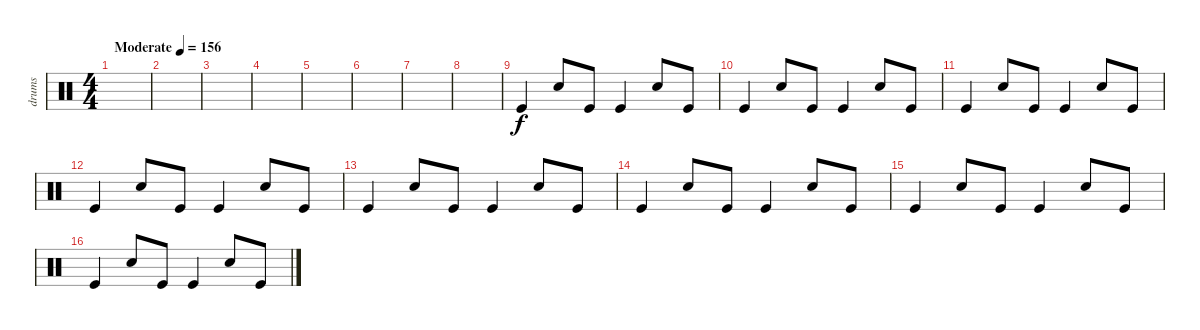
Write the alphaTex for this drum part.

\track ("drums" "drums") {instrument percussion}
\staff {score}
\articulation defaults
\ts (4 4)
\tempo (156 "Moderate")
\clef neutral
\ks c
|
|
|
|
|
|
|
|
"Kick (hit)".4 "Snare (hit) 2".8 "Kick (hit)".8 "Kick (hit)".4 "Snare (hit) 2".8 "Kick (hit)".8 |
"Kick (hit)".4 "Snare (hit) 2".8 "Kick (hit)".8 "Kick (hit)".4 "Snare (hit) 2".8 "Kick (hit)".8 |
"Kick (hit)".4 "Snare (hit) 2".8 "Kick (hit)".8 "Kick (hit)".4 "Snare (hit) 2".8 "Kick (hit)".8 |
"Kick (hit)".4 "Snare (hit) 2".8 "Kick (hit)".8 "Kick (hit)".4 "Electric Snare (hit)".8 "Kick (hit)".8 |
"Kick (hit)".4 "Snare (hit) 2".8 "Kick (hit)".8 "Kick (hit)".4 "Snare (hit) 2".8 "Kick (hit)".8 |
"Kick (hit)".4 "Snare (hit) 2".8 "Kick (hit)".8 "Kick (hit)".4 "Snare (hit) 2".8 "Kick (hit)".8 |
"Kick (hit)".4 "Snare (hit) 2".8 "Kick (hit)".8 "Kick (hit)".4 "Snare (hit) 2".8 "Kick (hit)".8 |
"Kick (hit)".4 "Snare (hit) 2".8 "Kick (hit)".8 "Kick (hit)".4 "Electric Snare (hit)".8 "Kick (hit)".8
